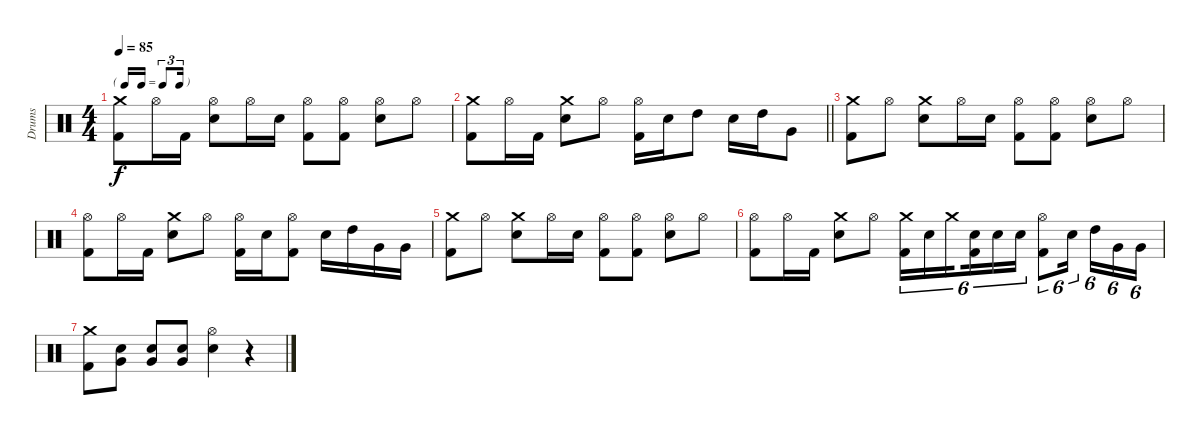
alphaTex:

\track ("Drums" "Drums") {instrument percussion}
\staff {score}
\articulation defaults
\ts (4 4)
\tf triplet16th
\tempo 85
\clef neutral
\ks c
("Crash medium (hit)" "Kick (hit) 2").8{dy f} "Hi-Hat (open)".16 "Kick (hit) 2".16 ("Hi-Hat (open)" "Snare (hit) 2").8 "Hi-Hat (open)".16 "Snare (hit) 2".16 ("Hi-Hat (open)" "Kick (hit) 2").8 ("Hi-Hat (open)" "Kick (hit) 2").8 ("Hi-Hat (open)" "Snare (hit) 2").8 "Hi-Hat (open)".8 |
\barLineRight lightlight
("Crash medium (hit)" "Kick (hit) 2").8 "Hi-Hat (open)".16 "Kick (hit) 2".16 ("Crash medium (hit)" "Snare (hit) 2").8 "Hi-Hat (open)".8 ("Hi-Hat (open)" "Kick (hit) 2").16 "Snare (hit) 2".16 "High Tom (hit)".8 "Snare (hit) 2".16 "High Tom (hit)".16 "Very Low Tom (hit)".8 |
\section ("" "")
("Crash medium (hit)" "Kick (hit) 2").8 "Hi-Hat (open)".8 ("Crash medium (hit)" "Snare (hit) 2").8 "Hi-Hat (open)".16 "Snare (hit) 2".16 ("Hi-Hat (open)" "Kick (hit) 2").8 ("Hi-Hat (open)" "Kick (hit) 2").8 ("Hi-Hat (open)" "Snare (hit) 2").8 "Hi-Hat (open)".8 |
("Hi-Hat (open)" "Kick (hit) 2").8 "Hi-Hat (open)".16 "Kick (hit) 2".16 ("Crash medium (hit)" "Snare (hit) 2").8 "Hi-Hat (open)".8 ("Hi-Hat (open)" "Kick (hit) 2").16 "Snare (hit) 2".16 ("Hi-Hat (open)" "Kick (hit) 2").8 "Snare (hit) 2".16 "High Tom (hit)".16 "Very Low Tom (hit)".16 "Very Low Tom (hit)".16 |
("Crash medium (hit)" "Kick (hit) 2").8 "Hi-Hat (open)".8 ("Crash medium (hit)" "Snare (hit) 2").8 "Hi-Hat (open)".16 "Snare (hit) 2".16 ("Hi-Hat (open)" "Kick (hit) 2").8 ("Hi-Hat (open)" "Kick (hit) 2").8 ("Hi-Hat (open)" "Snare (hit) 2").8 "Hi-Hat (open)".8 |
("Hi-Hat (open)" "Kick (hit) 2").8 "Hi-Hat (open)".16 "Kick (hit) 2".16 ("Crash medium (hit)" "Snare (hit) 2").8 "Hi-Hat (open)".8 ("Crash medium (hit)" "Kick (hit) 2").16{tu (6 4)} "Snare (hit) 2".16{tu (6 4)} "Crash medium (hit)".16{tu (6 4) beam splitsecondary} ("Snare (hit) 2" "Kick (hit) 2").16{tu (6 4)} "Snare (hit) 2".16{tu (6 4)} "Snare (hit) 2".16{tu (6 4)} ("Hi-Hat (open)" "Kick (hit) 2").8{tu (6 4)} "Snare (hit) 2".16{tu (6 4) beam splitsecondary} "High Tom (hit)".16{tu (6 4)} "Very Low Tom (hit)".16{tu (6 4)} "Very Low Tom (hit)".16{tu (6 4)} |
("Crash medium (hit)" "Kick (hit) 2").8 ("Snare (hit) 2" "Very Low Tom (hit)").8 ("Snare (hit) 2" "Very Low Tom (hit)").8 ("Snare (hit) 2" "Very Low Tom (hit)").8 ("Hi-Hat (open)" "Snare (hit) 2").4 r.4
